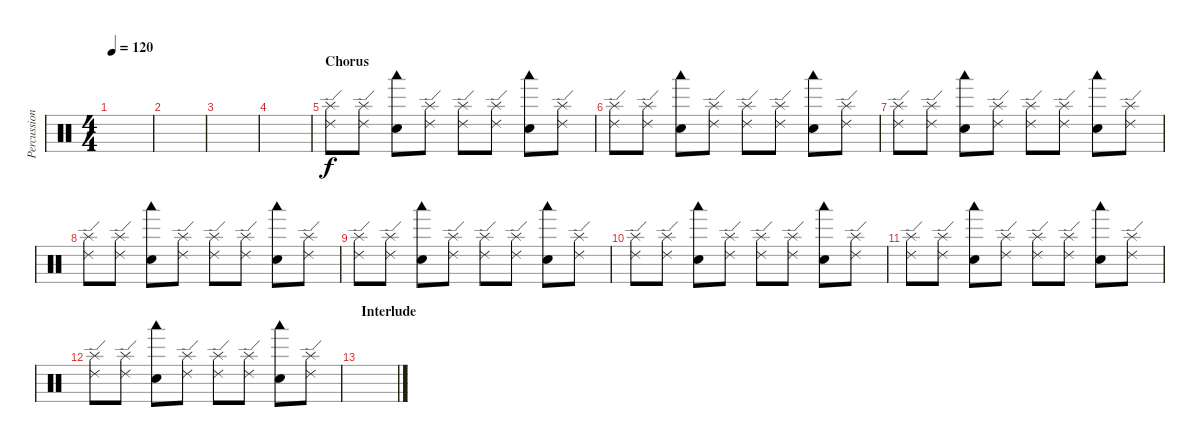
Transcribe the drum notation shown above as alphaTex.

\track ("Percussion" "Percussion") {instrument percussion}
\staff {score}
\articulation defaults
\ts (4 4)
\tempo 120
\clef neutral
\ks c
|
|
|
|
\section ("" "Chorus")
("Splash (hit)" "Ride (edge) 2").8 ("Splash (hit)" "Ride (edge) 2").8 ("Woodblock low (hit)" "Electric Snare (hit)").8 ("Splash (hit)" "Ride (edge) 2").8 ("Splash (hit)" "Ride (edge) 2").8 ("Splash (hit)" "Ride (edge) 2").8 ("Woodblock low (hit)" "Electric Snare (hit)").8 ("Splash (hit)" "Ride (edge) 2").8 |
("Splash (hit)" "Ride (edge) 2").8 ("Splash (hit)" "Ride (edge) 2").8 ("Woodblock low (hit)" "Electric Snare (hit)").8 ("Splash (hit)" "Ride (edge) 2").8 ("Splash (hit)" "Ride (edge) 2").8 ("Splash (hit)" "Ride (edge) 2").8 ("Woodblock low (hit)" "Electric Snare (hit)").8 ("Splash (hit)" "Ride (edge) 2").8 |
("Splash (hit)" "Ride (edge) 2").8 ("Splash (hit)" "Ride (edge) 2").8 ("Woodblock low (hit)" "Electric Snare (hit)").8 ("Splash (hit)" "Ride (edge) 2").8 ("Splash (hit)" "Ride (edge) 2").8 ("Splash (hit)" "Ride (edge) 2").8 ("Woodblock low (hit)" "Electric Snare (hit)").8 ("Splash (hit)" "Ride (edge) 2").8 |
("Splash (hit)" "Ride (edge) 2").8 ("Splash (hit)" "Ride (edge) 2").8 ("Woodblock low (hit)" "Electric Snare (hit)").8 ("Splash (hit)" "Ride (edge) 2").8 ("Splash (hit)" "Ride (edge) 2").8 ("Splash (hit)" "Ride (edge) 2").8 ("Woodblock low (hit)" "Electric Snare (hit)").8 ("Splash (hit)" "Ride (edge) 2").8 |
("Splash (hit)" "Ride (edge) 2").8 ("Splash (hit)" "Ride (edge) 2").8 ("Woodblock low (hit)" "Electric Snare (hit)").8 ("Splash (hit)" "Ride (edge) 2").8 ("Splash (hit)" "Ride (edge) 2").8 ("Splash (hit)" "Ride (edge) 2").8 ("Woodblock low (hit)" "Electric Snare (hit)").8 ("Splash (hit)" "Ride (edge) 2").8 |
("Splash (hit)" "Ride (edge) 2").8 ("Splash (hit)" "Ride (edge) 2").8 ("Woodblock low (hit)" "Electric Snare (hit)").8 ("Splash (hit)" "Ride (edge) 2").8 ("Splash (hit)" "Ride (edge) 2").8 ("Splash (hit)" "Ride (edge) 2").8 ("Woodblock low (hit)" "Electric Snare (hit)").8 ("Splash (hit)" "Ride (edge) 2").8 |
("Splash (hit)" "Ride (edge) 2").8 ("Splash (hit)" "Ride (edge) 2").8 ("Woodblock low (hit)" "Electric Snare (hit)").8 ("Splash (hit)" "Ride (edge) 2").8 ("Splash (hit)" "Ride (edge) 2").8 ("Splash (hit)" "Ride (edge) 2").8 ("Woodblock low (hit)" "Electric Snare (hit)").8 ("Splash (hit)" "Ride (edge) 2").8 |
("Splash (hit)" "Ride (edge) 2").8 ("Splash (hit)" "Ride (edge) 2").8 ("Woodblock low (hit)" "Electric Snare (hit)").8 ("Splash (hit)" "Ride (edge) 2").8 ("Splash (hit)" "Ride (edge) 2").8 ("Splash (hit)" "Ride (edge) 2").8 ("Woodblock low (hit)" "Electric Snare (hit)").8 ("Splash (hit)" "Ride (edge) 2").8 |
\section ("" "Interlude")
